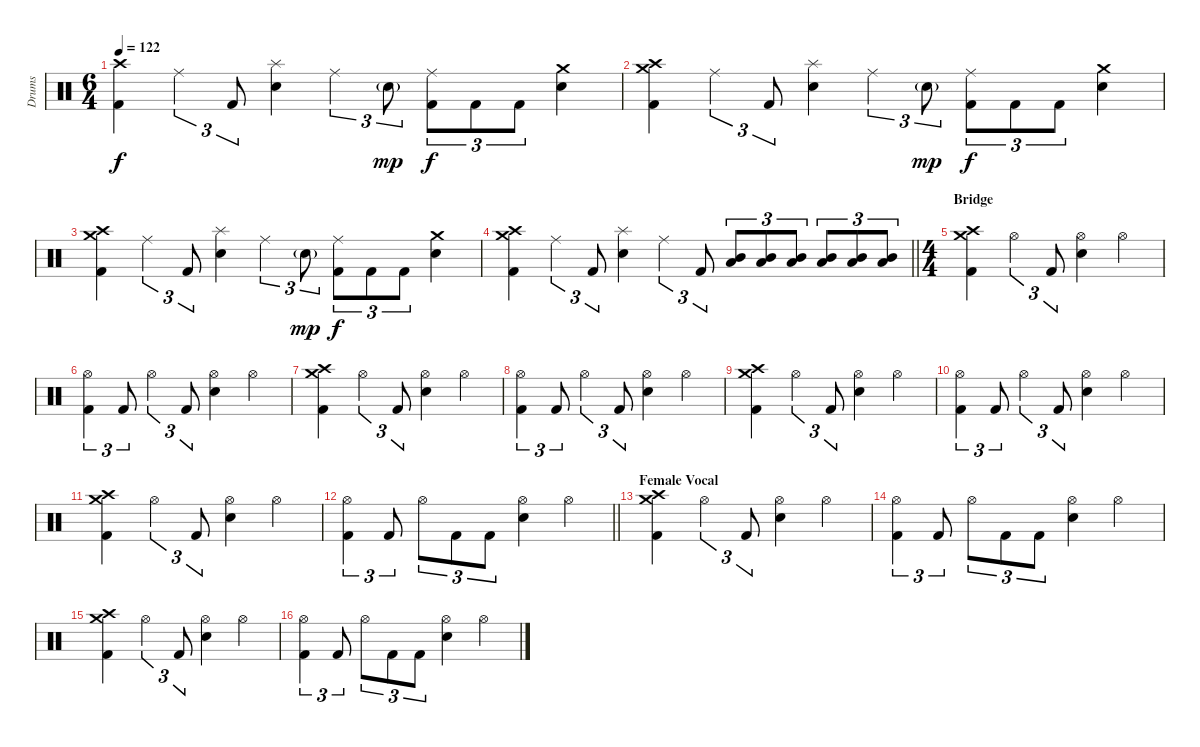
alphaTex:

\track ("Drums" "Drums") {instrument percussion}
\staff {score}
\articulation defaults
\ts (6 4)
\tempo 122
\clef neutral
\ks c
("Crash high (hit)" "Kick (hit) 2").4{dy f} "Ride (middle)".4{tu (3 2)} "Kick (hit) 2".8{tu (3 2)} ("Splash (hit)" "Electric Snare (hit)").4 "Ride (middle)".4{tu (3 2)} "Electric Snare (hit)"{g}.8{tu (3 2) dy mp} ("Ride (middle)" "Kick (hit) 2").8{tu (3 2) dy f} "Kick (hit) 2".8{tu (3 2)} "Kick (hit) 2".8{tu (3 2)} ("Crash medium (hit)" "Electric Snare (hit)").4 |
("Crash high (hit)" "Crash medium (hit)" "Kick (hit) 2").4 "Ride (middle)".4{tu (3 2)} "Kick (hit) 2".8{tu (3 2)} ("Splash (hit)" "Electric Snare (hit)").4 "Ride (middle)".4{tu (3 2)} "Electric Snare (hit)"{g}.8{tu (3 2) dy mp} ("Ride (middle)" "Kick (hit) 2").8{tu (3 2) dy f} "Kick (hit) 2".8{tu (3 2)} "Kick (hit) 2".8{tu (3 2)} ("Crash medium (hit)" "Electric Snare (hit)").4 |
("Crash high (hit)" "Crash medium (hit)" "Kick (hit) 2").4 "Ride (middle)".4{tu (3 2)} "Kick (hit) 2".8{tu (3 2)} ("Splash (hit)" "Electric Snare (hit)").4 "Ride (middle)".4{tu (3 2)} "Electric Snare (hit)"{g}.8{tu (3 2) dy mp} ("Ride (middle)" "Kick (hit) 2").8{tu (3 2) dy f} "Kick (hit) 2".8{tu (3 2)} "Kick (hit) 2".8{tu (3 2)} ("Crash medium (hit)" "Electric Snare (hit)").4 |
\barLineRight lightlight
("Crash high (hit)" "Crash medium (hit)" "Kick (hit) 2").4 "Ride (middle)".4{tu (3 2)} "Kick (hit) 2".8{tu (3 2)} ("Splash (hit)" "Electric Snare (hit)").4 "Ride (middle)".4{tu (3 2)} "Kick (hit) 2".8{tu (3 2)} ("Mid Tom (hit)" "Low Floor Tom (hit)").8{tu (3 2)} ("Mid Tom (hit)" "Low Floor Tom (hit)").8{tu (3 2)} ("Mid Tom (hit)" "Low Floor Tom (hit)").8{tu (3 2)} ("Mid Tom (hit)" "Low Floor Tom (hit)").8{tu (3 2)} ("Mid Tom (hit)" "Low Floor Tom (hit)").8{tu (3 2)} ("Mid Tom (hit)" "Low Floor Tom (hit)").8{tu (3 2)} |
\ts (4 4)
\section ("" "Bridge")
("Crash high (hit)" "Crash medium (hit)" "Kick (hit) 2").4 "Hi-Hat (open)".4{tu (3 2)} "Kick (hit) 2".8{tu (3 2)} ("Hi-Hat (open)" "Electric Snare (hit)").4 "Hi-Hat (open)".4 |
("Hi-Hat (open)" "Kick (hit) 2").4{tu (3 2)} "Kick (hit) 2".8{tu (3 2)} "Hi-Hat (open)".4{tu (3 2)} "Kick (hit) 2".8{tu (3 2)} ("Hi-Hat (open)" "Electric Snare (hit)").4 "Hi-Hat (open)".4 |
("Crash high (hit)" "Crash medium (hit)" "Kick (hit) 2").4 "Hi-Hat (open)".4{tu (3 2)} "Kick (hit) 2".8{tu (3 2)} ("Hi-Hat (open)" "Electric Snare (hit)").4 "Hi-Hat (open)".4 |
("Hi-Hat (open)" "Kick (hit) 2").4{tu (3 2)} "Kick (hit) 2".8{tu (3 2)} "Hi-Hat (open)".4{tu (3 2)} "Kick (hit) 2".8{tu (3 2)} ("Hi-Hat (open)" "Electric Snare (hit)").4 "Hi-Hat (open)".4 |
("Crash high (hit)" "Crash medium (hit)" "Kick (hit) 2").4 "Hi-Hat (open)".4{tu (3 2)} "Kick (hit) 2".8{tu (3 2)} ("Hi-Hat (open)" "Electric Snare (hit)").4 "Hi-Hat (open)".4 |
("Hi-Hat (open)" "Kick (hit) 2").4{tu (3 2)} "Kick (hit) 2".8{tu (3 2)} "Hi-Hat (open)".4{tu (3 2)} "Kick (hit) 2".8{tu (3 2)} ("Hi-Hat (open)" "Electric Snare (hit)").4 "Hi-Hat (open)".4 |
("Crash high (hit)" "Crash medium (hit)" "Kick (hit) 2").4 "Hi-Hat (open)".4{tu (3 2)} "Kick (hit) 2".8{tu (3 2)} ("Hi-Hat (open)" "Electric Snare (hit)").4 "Hi-Hat (open)".4 |
\barLineRight lightlight
("Hi-Hat (open)" "Kick (hit) 2").4{tu (3 2)} "Kick (hit) 2".8{tu (3 2)} "Hi-Hat (open)".8{tu (3 2)} "Kick (hit) 2".8{tu (3 2)} "Kick (hit) 2".8{tu (3 2)} ("Hi-Hat (open)" "Electric Snare (hit)").4 "Hi-Hat (open)".4 |
\section ("" "Female Vocal")
("Crash high (hit)" "Crash medium (hit)" "Kick (hit) 2").4 "Hi-Hat (open)".4{tu (3 2)} "Kick (hit) 2".8{tu (3 2)} ("Hi-Hat (open)" "Electric Snare (hit)").4 "Hi-Hat (open)".4 |
("Hi-Hat (open)" "Kick (hit) 2").4{tu (3 2)} "Kick (hit) 2".8{tu (3 2)} "Hi-Hat (open)".8{tu (3 2)} "Kick (hit) 2".8{tu (3 2)} "Kick (hit) 2".8{tu (3 2)} ("Hi-Hat (open)" "Electric Snare (hit)").4 "Hi-Hat (open)".4 |
("Crash high (hit)" "Crash medium (hit)" "Kick (hit) 2").4 "Hi-Hat (open)".4{tu (3 2)} "Kick (hit) 2".8{tu (3 2)} ("Hi-Hat (open)" "Electric Snare (hit)").4 "Hi-Hat (open)".4 |
("Hi-Hat (open)" "Kick (hit) 2").4{tu (3 2)} "Kick (hit) 2".8{tu (3 2)} "Hi-Hat (open)".8{tu (3 2)} "Kick (hit) 2".8{tu (3 2)} "Kick (hit) 2".8{tu (3 2)} ("Hi-Hat (open)" "Electric Snare (hit)").4 "Hi-Hat (open)".4
